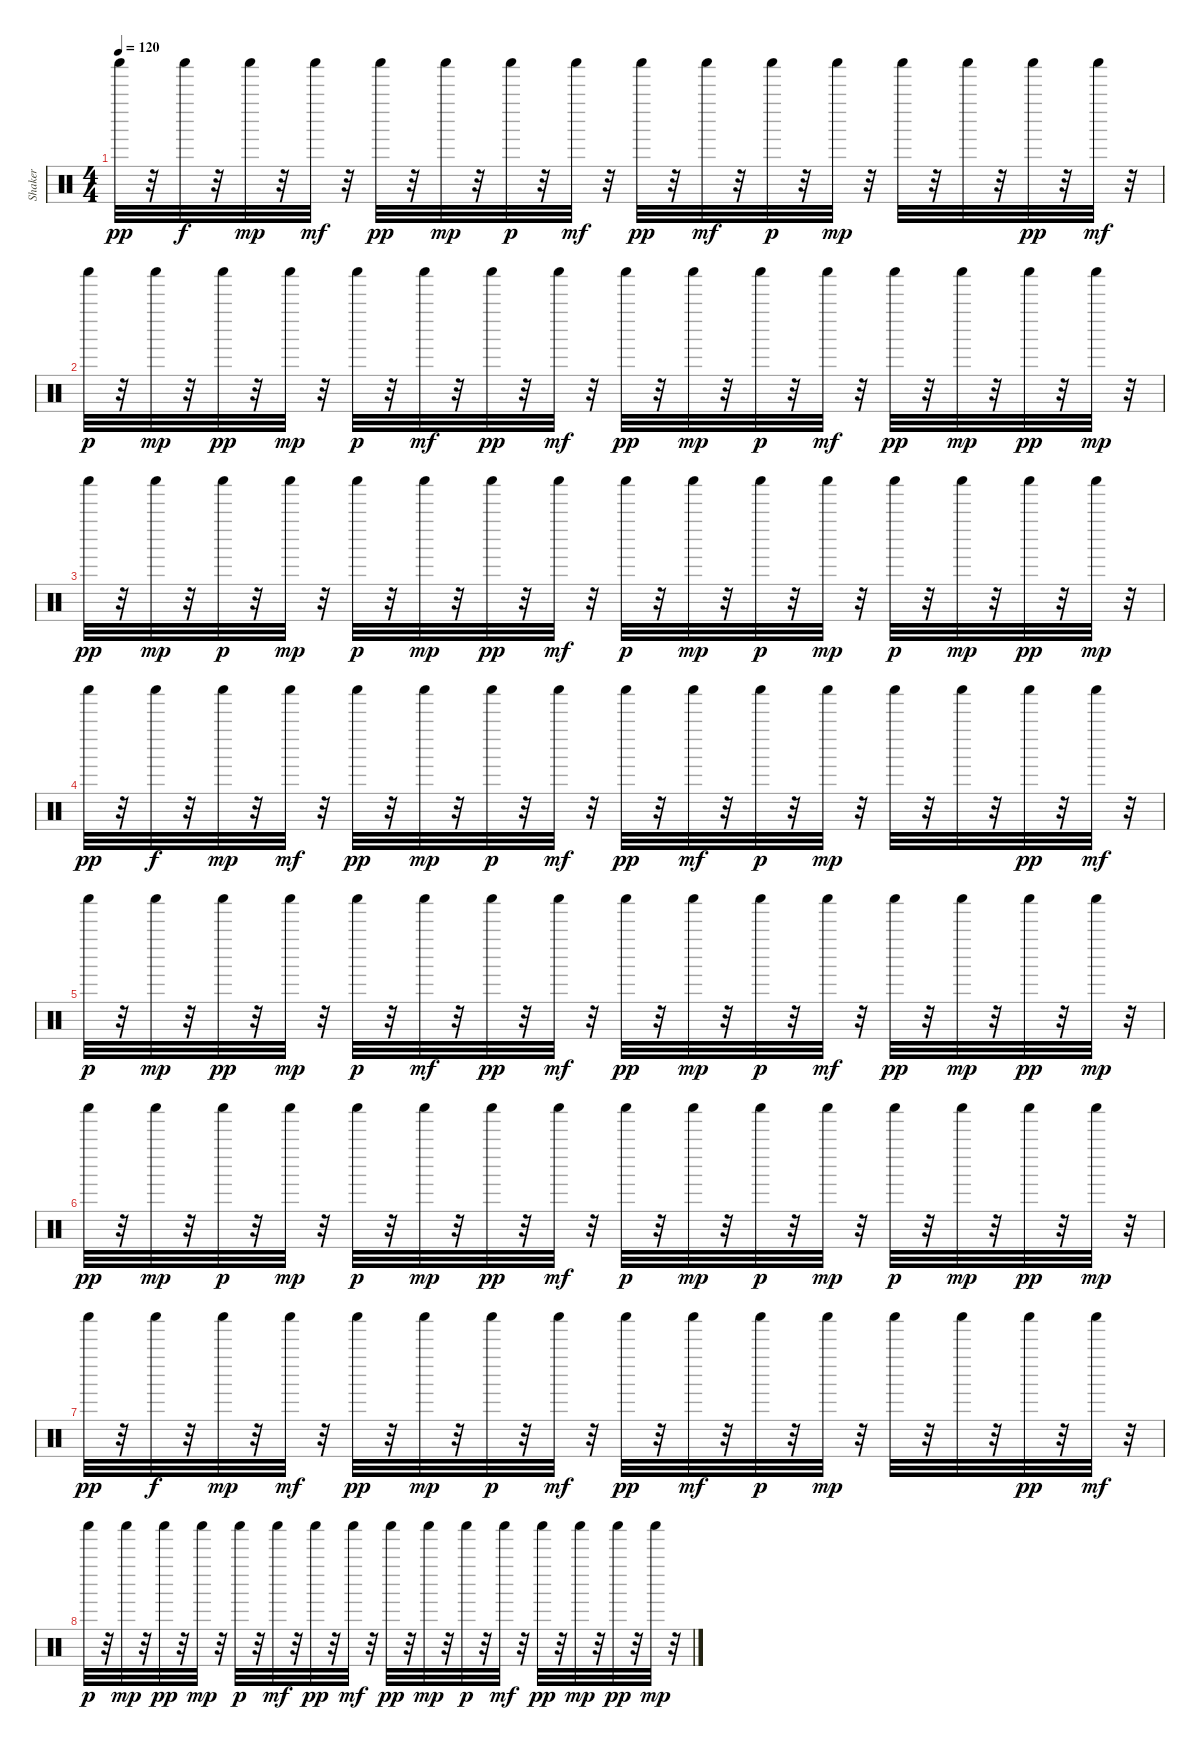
\track ("Shaker" "Shaker") {instrument percussion}
\staff {score}
\articulation defaults
\ts (4 4)
\tempo 120
\clef neutral
\ks c "Shaker (hit)".32{dy pp}
r.32 "Shaker (hit)".32{dy f} r.32 "Shaker (hit)".32{dy mp} r.32 "Shaker (hit)".32{dy mf} r.32 "Shaker (hit)".32{dy pp} r.32 "Shaker (hit)".32{dy mp} r.32 "Shaker (hit)".32{dy p} r.32 "Shaker (hit)".32{dy mf} r.32 "Shaker (hit)".32{dy pp} r.32 "Shaker (hit)".32{dy mf} r.32 "Shaker (hit)".32{dy p} r.32 "Shaker (hit)".32{dy mp} r.32 "Shaker (hit)".32 r.32 "Shaker (hit)".32 r.32 "Shaker (hit)".32{dy pp} r.32 "Shaker (hit)".32{dy mf} r.32 |
"Shaker (hit)".32{dy p} r.32 "Shaker (hit)".32{dy mp} r.32 "Shaker (hit)".32{dy pp} r.32 "Shaker (hit)".32{dy mp} r.32 "Shaker (hit)".32{dy p} r.32 "Shaker (hit)".32{dy mf} r.32 "Shaker (hit)".32{dy pp} r.32 "Shaker (hit)".32{dy mf} r.32 "Shaker (hit)".32{dy pp} r.32 "Shaker (hit)".32{dy mp} r.32 "Shaker (hit)".32{dy p} r.32 "Shaker (hit)".32{dy mf} r.32 "Shaker (hit)".32{dy pp} r.32 "Shaker (hit)".32{dy mp} r.32 "Shaker (hit)".32{dy pp} r.32 "Shaker (hit)".32{dy mp} r.32 |
"Shaker (hit)".32{dy pp} r.32 "Shaker (hit)".32{dy mp} r.32 "Shaker (hit)".32{dy p} r.32 "Shaker (hit)".32{dy mp} r.32 "Shaker (hit)".32{dy p} r.32 "Shaker (hit)".32{dy mp} r.32 "Shaker (hit)".32{dy pp} r.32 "Shaker (hit)".32{dy mf} r.32 "Shaker (hit)".32{dy p} r.32 "Shaker (hit)".32{dy mp} r.32 "Shaker (hit)".32{dy p} r.32 "Shaker (hit)".32{dy mp} r.32 "Shaker (hit)".32{dy p} r.32 "Shaker (hit)".32{dy mp} r.32 "Shaker (hit)".32{dy pp} r.32 "Shaker (hit)".32{dy mp} r.32 |
"Shaker (hit)".32{dy pp} r.32 "Shaker (hit)".32{dy f} r.32 "Shaker (hit)".32{dy mp} r.32 "Shaker (hit)".32{dy mf} r.32 "Shaker (hit)".32{dy pp} r.32 "Shaker (hit)".32{dy mp} r.32 "Shaker (hit)".32{dy p} r.32 "Shaker (hit)".32{dy mf} r.32 "Shaker (hit)".32{dy pp} r.32 "Shaker (hit)".32{dy mf} r.32 "Shaker (hit)".32{dy p} r.32 "Shaker (hit)".32{dy mp} r.32 "Shaker (hit)".32 r.32 "Shaker (hit)".32 r.32 "Shaker (hit)".32{dy pp} r.32 "Shaker (hit)".32{dy mf} r.32 |
"Shaker (hit)".32{dy p} r.32 "Shaker (hit)".32{dy mp} r.32 "Shaker (hit)".32{dy pp} r.32 "Shaker (hit)".32{dy mp} r.32 "Shaker (hit)".32{dy p} r.32 "Shaker (hit)".32{dy mf} r.32 "Shaker (hit)".32{dy pp} r.32 "Shaker (hit)".32{dy mf} r.32 "Shaker (hit)".32{dy pp} r.32 "Shaker (hit)".32{dy mp} r.32 "Shaker (hit)".32{dy p} r.32 "Shaker (hit)".32{dy mf} r.32 "Shaker (hit)".32{dy pp} r.32 "Shaker (hit)".32{dy mp} r.32 "Shaker (hit)".32{dy pp} r.32 "Shaker (hit)".32{dy mp} r.32 |
"Shaker (hit)".32{dy pp} r.32 "Shaker (hit)".32{dy mp} r.32 "Shaker (hit)".32{dy p} r.32 "Shaker (hit)".32{dy mp} r.32 "Shaker (hit)".32{dy p} r.32 "Shaker (hit)".32{dy mp} r.32 "Shaker (hit)".32{dy pp} r.32 "Shaker (hit)".32{dy mf} r.32 "Shaker (hit)".32{dy p} r.32 "Shaker (hit)".32{dy mp} r.32 "Shaker (hit)".32{dy p} r.32 "Shaker (hit)".32{dy mp} r.32 "Shaker (hit)".32{dy p} r.32 "Shaker (hit)".32{dy mp} r.32 "Shaker (hit)".32{dy pp} r.32 "Shaker (hit)".32{dy mp} r.32 |
"Shaker (hit)".32{dy pp} r.32 "Shaker (hit)".32{dy f} r.32 "Shaker (hit)".32{dy mp} r.32 "Shaker (hit)".32{dy mf} r.32 "Shaker (hit)".32{dy pp} r.32 "Shaker (hit)".32{dy mp} r.32 "Shaker (hit)".32{dy p} r.32 "Shaker (hit)".32{dy mf} r.32 "Shaker (hit)".32{dy pp} r.32 "Shaker (hit)".32{dy mf} r.32 "Shaker (hit)".32{dy p} r.32 "Shaker (hit)".32{dy mp} r.32 "Shaker (hit)".32 r.32 "Shaker (hit)".32 r.32 "Shaker (hit)".32{dy pp} r.32 "Shaker (hit)".32{dy mf} r.32 |
"Shaker (hit)".32{dy p} r.32 "Shaker (hit)".32{dy mp} r.32 "Shaker (hit)".32{dy pp} r.32 "Shaker (hit)".32{dy mp} r.32 "Shaker (hit)".32{dy p} r.32 "Shaker (hit)".32{dy mf} r.32 "Shaker (hit)".32{dy pp} r.32 "Shaker (hit)".32{dy mf} r.32 "Shaker (hit)".32{dy pp} r.32 "Shaker (hit)".32{dy mp} r.32 "Shaker (hit)".32{dy p} r.32 "Shaker (hit)".32{dy mf} r.32 "Shaker (hit)".32{dy pp} r.32 "Shaker (hit)".32{dy mp} r.32 "Shaker (hit)".32{dy pp} r.32 "Shaker (hit)".32{dy mp} r.32
